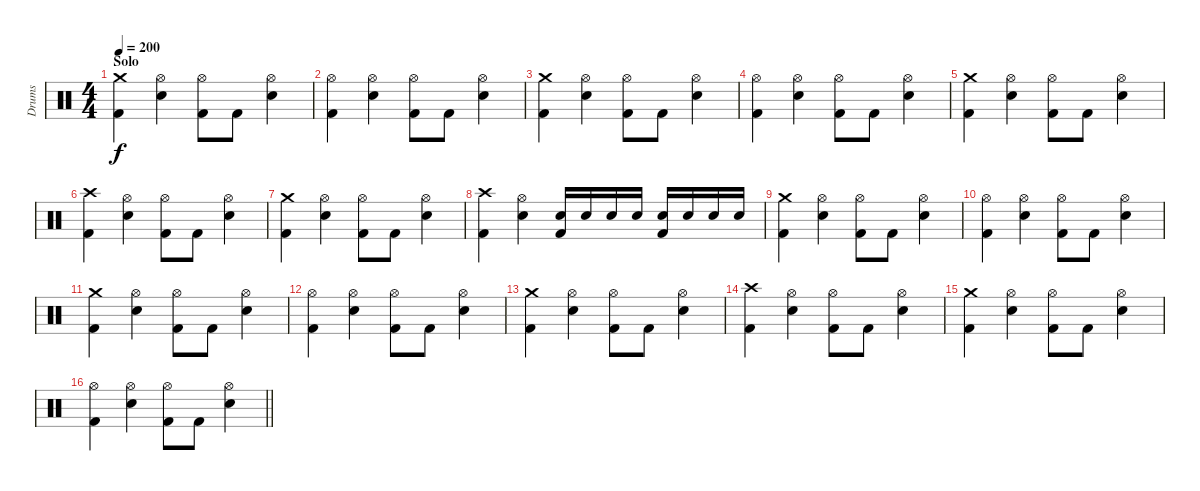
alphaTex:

\track ("Drums" "Drums") {instrument percussion}
\staff {score}
\articulation defaults
\ts (4 4)
\section ("" "Solo")
\tempo 200
\clef neutral
\ks c
("Crash medium (hit)" "Kick (hit) 2").4{dy f} ("Hi-Hat (open)" "Electric Snare (hit)").4 ("Hi-Hat (open)" "Kick (hit) 2").8 "Kick (hit) 2".8 ("Hi-Hat (open)" "Electric Snare (hit)").4 |
("Hi-Hat (open)" "Kick (hit) 2").4 ("Hi-Hat (open)" "Electric Snare (hit)").4 ("Hi-Hat (open)" "Kick (hit) 2").8 "Kick (hit) 2".8 ("Hi-Hat (open)" "Electric Snare (hit)").4 |
("Crash medium (hit)" "Kick (hit) 2").4 ("Hi-Hat (open)" "Electric Snare (hit)").4 ("Hi-Hat (open)" "Kick (hit) 2").8 "Kick (hit) 2".8 ("Hi-Hat (open)" "Electric Snare (hit)").4 |
("Hi-Hat (open)" "Kick (hit) 2").4 ("Hi-Hat (open)" "Electric Snare (hit)").4 ("Hi-Hat (open)" "Kick (hit) 2").8 "Kick (hit) 2".8 ("Hi-Hat (open)" "Electric Snare (hit)").4 |
("Crash medium (hit)" "Kick (hit) 2").4 ("Hi-Hat (open)" "Electric Snare (hit)").4 ("Hi-Hat (open)" "Kick (hit) 2").8 "Kick (hit) 2".8 ("Hi-Hat (open)" "Electric Snare (hit)").4 |
("Crash high (hit)" "Kick (hit) 2").4 ("Hi-Hat (open)" "Electric Snare (hit)").4 ("Hi-Hat (open)" "Kick (hit) 2").8 "Kick (hit) 2".8 ("Hi-Hat (open)" "Electric Snare (hit)").4 |
("Crash medium (hit)" "Kick (hit) 2").4 ("Hi-Hat (open)" "Electric Snare (hit)").4 ("Hi-Hat (open)" "Kick (hit) 2").8 "Kick (hit) 2".8 ("Hi-Hat (open)" "Electric Snare (hit)").4 |
("Crash high (hit)" "Kick (hit) 2").4 ("Hi-Hat (open)" "Electric Snare (hit)").4 ("Electric Snare (hit)" "Kick (hit) 2").16 "Electric Snare (hit)".16 "Electric Snare (hit)".16 "Electric Snare (hit)".16 ("Electric Snare (hit)" "Kick (hit) 2").16 "Electric Snare (hit)".16 "Electric Snare (hit)".16 "Electric Snare (hit)".16 |
("Crash medium (hit)" "Kick (hit) 2").4 ("Hi-Hat (open)" "Electric Snare (hit)").4 ("Hi-Hat (open)" "Kick (hit) 2").8 "Kick (hit) 2".8 ("Hi-Hat (open)" "Electric Snare (hit)").4 |
("Hi-Hat (open)" "Kick (hit) 2").4 ("Hi-Hat (open)" "Electric Snare (hit)").4 ("Hi-Hat (open)" "Kick (hit) 2").8 "Kick (hit) 2".8 ("Hi-Hat (open)" "Electric Snare (hit)").4 |
("Crash medium (hit)" "Kick (hit) 2").4 ("Hi-Hat (open)" "Electric Snare (hit)").4 ("Hi-Hat (open)" "Kick (hit) 2").8 "Kick (hit) 2".8 ("Hi-Hat (open)" "Electric Snare (hit)").4 |
("Hi-Hat (open)" "Kick (hit) 2").4 ("Hi-Hat (open)" "Electric Snare (hit)").4 ("Hi-Hat (open)" "Kick (hit) 2").8 "Kick (hit) 2".8 ("Hi-Hat (open)" "Electric Snare (hit)").4 |
("Crash medium (hit)" "Kick (hit) 2").4 ("Hi-Hat (open)" "Electric Snare (hit)").4 ("Hi-Hat (open)" "Kick (hit) 2").8 "Kick (hit) 2".8 ("Hi-Hat (open)" "Electric Snare (hit)").4 |
("Crash high (hit)" "Kick (hit) 2").4 ("Hi-Hat (open)" "Electric Snare (hit)").4 ("Hi-Hat (open)" "Kick (hit) 2").8 "Kick (hit) 2".8 ("Hi-Hat (open)" "Electric Snare (hit)").4 |
("Crash medium (hit)" "Kick (hit) 2").4 ("Hi-Hat (open)" "Electric Snare (hit)").4 ("Hi-Hat (open)" "Kick (hit) 2").8 "Kick (hit) 2".8 ("Hi-Hat (open)" "Electric Snare (hit)").4 |
\barLineRight lightlight
("Hi-Hat (open)" "Kick (hit) 2").4 ("Hi-Hat (open)" "Electric Snare (hit)").4 ("Hi-Hat (open)" "Kick (hit) 2").8 "Kick (hit) 2".8 ("Hi-Hat (open)" "Electric Snare (hit)").4
